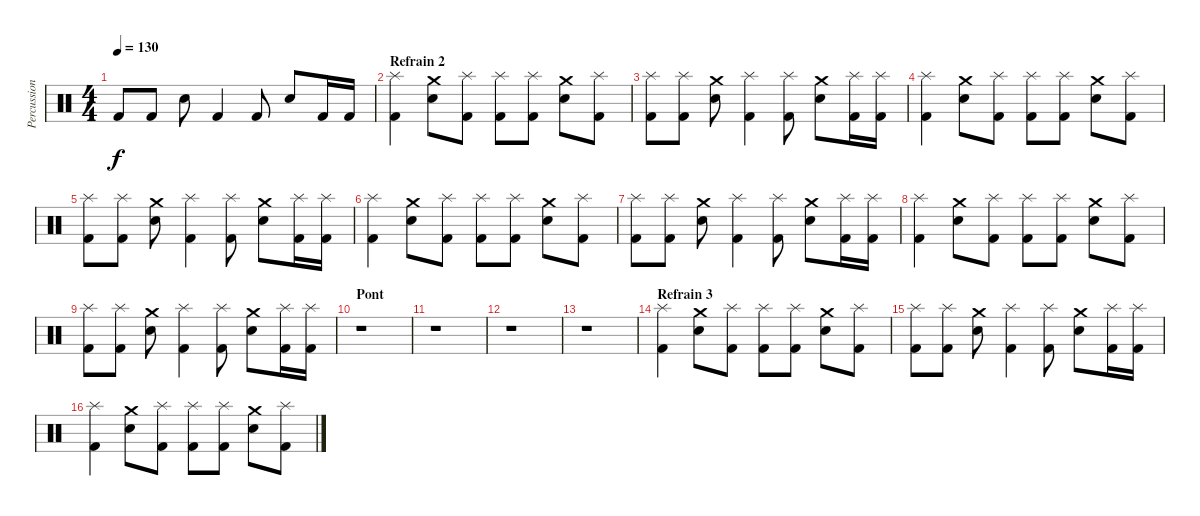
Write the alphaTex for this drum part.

\track ("Percussions" "Percussion") {instrument percussion}
\staff {score}
\articulation defaults
\ts (4 4)
\tempo 130
\clef neutral
\ks c "Kick (hit) 2".8{dy f} "Kick (hit) 2".8 "Snare (hit) 2".8 "Kick (hit) 2".4 "Kick (hit) 2".8 "Snare (hit) 2".8 "Kick (hit) 2".16 "Kick (hit) 2".16
|
\section ("" "Refrain 2")
("Splash (hit)" "Kick (hit) 2").4 ("Crash medium (hit)" "Snare (hit) 2").8 ("Splash (hit)" "Kick (hit) 2").8 ("Splash (hit)" "Kick (hit) 2").8 ("Splash (hit)" "Kick (hit) 2").8 ("Crash medium (hit)" "Snare (hit) 2").8 ("Splash (hit)" "Kick (hit) 2").8 |
("Splash (hit)" "Kick (hit) 2").8 ("Splash (hit)" "Kick (hit) 2").8 ("Crash medium (hit)" "Snare (hit) 2").8 ("Splash (hit)" "Kick (hit) 2").4 ("Splash (hit)" "Kick (hit) 2").8 ("Crash medium (hit)" "Snare (hit) 2").8 ("Splash (hit)" "Kick (hit) 2").16 ("Splash (hit)" "Kick (hit) 2").16 |
("Splash (hit)" "Kick (hit) 2").4 ("Crash medium (hit)" "Snare (hit) 2").8 ("Splash (hit)" "Kick (hit) 2").8 ("Splash (hit)" "Kick (hit) 2").8 ("Splash (hit)" "Kick (hit) 2").8 ("Crash medium (hit)" "Snare (hit) 2").8 ("Splash (hit)" "Kick (hit) 2").8 |
("Splash (hit)" "Kick (hit) 2").8 ("Splash (hit)" "Kick (hit) 2").8 ("Crash medium (hit)" "Snare (hit) 2").8 ("Splash (hit)" "Kick (hit) 2").4 ("Splash (hit)" "Kick (hit) 2").8 ("Crash medium (hit)" "Snare (hit) 2").8 ("Splash (hit)" "Kick (hit) 2").16 ("Splash (hit)" "Kick (hit) 2").16 |
("Splash (hit)" "Kick (hit) 2").4 ("Crash medium (hit)" "Snare (hit) 2").8 ("Splash (hit)" "Kick (hit) 2").8 ("Splash (hit)" "Kick (hit) 2").8 ("Splash (hit)" "Kick (hit) 2").8 ("Crash medium (hit)" "Snare (hit) 2").8 ("Splash (hit)" "Kick (hit) 2").8 |
("Splash (hit)" "Kick (hit) 2").8 ("Splash (hit)" "Kick (hit) 2").8 ("Crash medium (hit)" "Snare (hit) 2").8 ("Splash (hit)" "Kick (hit) 2").4 ("Splash (hit)" "Kick (hit) 2").8 ("Crash medium (hit)" "Snare (hit) 2").8 ("Splash (hit)" "Kick (hit) 2").16 ("Splash (hit)" "Kick (hit) 2").16 |
("Splash (hit)" "Kick (hit) 2").4 ("Crash medium (hit)" "Snare (hit) 2").8 ("Splash (hit)" "Kick (hit) 2").8 ("Splash (hit)" "Kick (hit) 2").8 ("Splash (hit)" "Kick (hit) 2").8 ("Crash medium (hit)" "Snare (hit) 2").8 ("Splash (hit)" "Kick (hit) 2").8 |
("Splash (hit)" "Kick (hit) 2").8 ("Splash (hit)" "Kick (hit) 2").8 ("Crash medium (hit)" "Snare (hit) 2").8 ("Splash (hit)" "Kick (hit) 2").4 ("Splash (hit)" "Kick (hit) 2").8 ("Crash medium (hit)" "Snare (hit) 2").8 ("Splash (hit)" "Kick (hit) 2").16 ("Splash (hit)" "Kick (hit) 2").16 |
\section ("" "Pont")
r.1 |
r.1 |
r.1 |
r.1 |
\section ("" "Refrain 3")
("Splash (hit)" "Kick (hit) 2").4 ("Crash medium (hit)" "Snare (hit) 2").8 ("Splash (hit)" "Kick (hit) 2").8 ("Splash (hit)" "Kick (hit) 2").8 ("Splash (hit)" "Kick (hit) 2").8 ("Crash medium (hit)" "Snare (hit) 2").8 ("Splash (hit)" "Kick (hit) 2").8 |
("Splash (hit)" "Kick (hit) 2").8 ("Splash (hit)" "Kick (hit) 2").8 ("Crash medium (hit)" "Snare (hit) 2").8 ("Splash (hit)" "Kick (hit) 2").4 ("Splash (hit)" "Kick (hit) 2").8 ("Crash medium (hit)" "Snare (hit) 2").8 ("Splash (hit)" "Kick (hit) 2").16 ("Splash (hit)" "Kick (hit) 2").16 |
("Splash (hit)" "Kick (hit) 2").4 ("Crash medium (hit)" "Snare (hit) 2").8 ("Splash (hit)" "Kick (hit) 2").8 ("Splash (hit)" "Kick (hit) 2").8 ("Splash (hit)" "Kick (hit) 2").8 ("Crash medium (hit)" "Snare (hit) 2").8 ("Splash (hit)" "Kick (hit) 2").8
